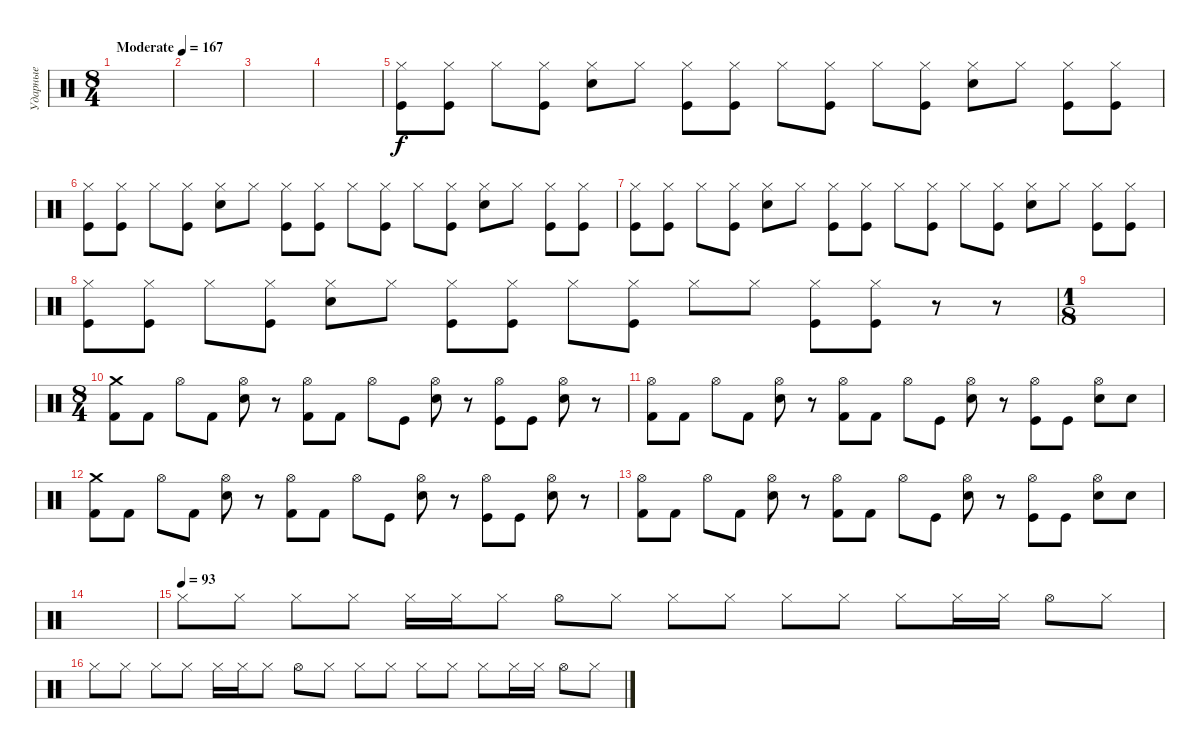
\track ("Ударные" "Ударные") {instrument percussion}
\staff {score}
\articulation defaults
\ts (8 4)
\tempo (167 "Moderate")
\tempo 180
\tempo (167 "Moderate")
\clef neutral
\ks c
|
|
|
|
("Hi-Hat (closed)" "Kick (hit)").8 ("Hi-Hat (closed)" "Kick (hit)").8 "Hi-Hat (closed)".8 ("Hi-Hat (closed)" "Kick (hit)").8 ("Hi-Hat (closed)" "Snare (hit) 2").8 "Hi-Hat (closed)".8 ("Hi-Hat (closed)" "Kick (hit)").8 ("Hi-Hat (closed)" "Kick (hit)").8 "Hi-Hat (closed)".8 ("Hi-Hat (closed)" "Kick (hit)").8 "Hi-Hat (closed)".8 ("Hi-Hat (closed)" "Kick (hit)").8 ("Hi-Hat (closed)" "Snare (hit) 2").8 "Hi-Hat (closed)".8 ("Hi-Hat (closed)" "Kick (hit)").8 ("Hi-Hat (closed)" "Kick (hit)").8 |
("Hi-Hat (closed)" "Kick (hit)").8 ("Hi-Hat (closed)" "Kick (hit)").8 "Hi-Hat (closed)".8 ("Hi-Hat (closed)" "Kick (hit)").8 ("Hi-Hat (closed)" "Snare (hit) 2").8 "Hi-Hat (closed)".8 ("Hi-Hat (closed)" "Kick (hit)").8 ("Hi-Hat (closed)" "Kick (hit)").8 "Hi-Hat (closed)".8 ("Hi-Hat (closed)" "Kick (hit)").8 "Hi-Hat (closed)".8 ("Hi-Hat (closed)" "Kick (hit)").8 ("Hi-Hat (closed)" "Snare (hit) 2").8 "Hi-Hat (closed)".8 ("Hi-Hat (closed)" "Kick (hit)").8 ("Hi-Hat (closed)" "Kick (hit)").8 |
("Hi-Hat (closed)" "Kick (hit)").8 ("Hi-Hat (closed)" "Kick (hit)").8 "Hi-Hat (closed)".8 ("Hi-Hat (closed)" "Kick (hit)").8 ("Hi-Hat (closed)" "Snare (hit) 2").8 "Hi-Hat (closed)".8 ("Hi-Hat (closed)" "Kick (hit)").8 ("Hi-Hat (closed)" "Kick (hit)").8 "Hi-Hat (closed)".8 ("Hi-Hat (closed)" "Kick (hit)").8 "Hi-Hat (closed)".8 ("Hi-Hat (closed)" "Kick (hit)").8 ("Hi-Hat (closed)" "Snare (hit) 2").8 "Hi-Hat (closed)".8 ("Hi-Hat (closed)" "Kick (hit)").8 ("Hi-Hat (closed)" "Kick (hit)").8 |
("Hi-Hat (closed)" "Kick (hit)").8 ("Hi-Hat (closed)" "Kick (hit)").8 "Hi-Hat (closed)".8 ("Hi-Hat (closed)" "Kick (hit)").8 ("Hi-Hat (closed)" "Snare (hit) 2").8 "Hi-Hat (closed)".8 ("Hi-Hat (closed)" "Kick (hit)").8 ("Hi-Hat (closed)" "Kick (hit)").8 "Hi-Hat (closed)".8 ("Hi-Hat (closed)" "Kick (hit)").8 "Hi-Hat (closed)".8 "Hi-Hat (closed)".8 ("Hi-Hat (closed)" "Kick (hit)").8 ("Hi-Hat (closed)" "Kick (hit)").8 r.8 r.8 |
\ts (1 8)
|
\ts (8 4)
("Crash medium (hit)" "Kick (hit) 2").8 "Kick (hit) 2".8 "Hi-Hat (open)".8 "Kick (hit) 2".8 ("Hi-Hat (open)" "Electric Snare (hit)").8 r.8 ("Hi-Hat (open)" "Kick (hit) 2").8 "Kick (hit) 2".8 "Hi-Hat (open)".8 "Kick (hit)".8 ("Hi-Hat (open)" "Snare (hit) 2").8 r.8 ("Hi-Hat (open)" "Kick (hit)").8 "Kick (hit)".8 ("Hi-Hat (open)" "Electric Snare (hit)").8 r.8 |
("Hi-Hat (open)" "Kick (hit) 2").8 "Kick (hit) 2".8 "Hi-Hat (open)".8 "Kick (hit) 2".8 ("Hi-Hat (open)" "Electric Snare (hit)").8 r.8 ("Hi-Hat (open)" "Kick (hit) 2").8 "Kick (hit) 2".8 "Hi-Hat (open)".8 "Kick (hit)".8 ("Hi-Hat (open)" "Electric Snare (hit)").8 r.8 ("Hi-Hat (open)" "Kick (hit)").8 "Kick (hit)".8 ("Hi-Hat (open)" "Electric Snare (hit)").8 "Electric Snare (hit)".8 |
("Crash medium (hit)" "Kick (hit) 2").8 "Kick (hit) 2".8 "Hi-Hat (open)".8 "Kick (hit) 2".8 ("Hi-Hat (open)" "Electric Snare (hit)").8 r.8 ("Hi-Hat (open)" "Kick (hit) 2").8 "Kick (hit) 2".8 "Hi-Hat (open)".8 "Kick (hit)".8 ("Hi-Hat (open)" "Snare (hit) 2").8 r.8 ("Hi-Hat (open)" "Kick (hit)").8 "Kick (hit)".8 ("Hi-Hat (open)" "Electric Snare (hit)").8 r.8 |
("Hi-Hat (open)" "Kick (hit) 2").8 "Kick (hit) 2".8 "Hi-Hat (open)".8 "Kick (hit) 2".8 ("Hi-Hat (open)" "Electric Snare (hit)").8 r.8 ("Hi-Hat (open)" "Kick (hit) 2").8 "Kick (hit) 2".8 "Hi-Hat (open)".8 "Kick (hit)".8 ("Hi-Hat (open)" "Electric Snare (hit)").8 r.8 ("Hi-Hat (open)" "Kick (hit)").8 "Kick (hit)".8 ("Hi-Hat (open)" "Electric Snare (hit)").8 "Electric Snare (hit)".8 |
|
\tempo (93)
"Hi-Hat (closed)".8 "Hi-Hat (closed)".8 "Hi-Hat (closed)".8 "Hi-Hat (closed)".8 "Hi-Hat (closed)".16 "Hi-Hat (closed)".16 "Hi-Hat (closed)".8 "Hi-Hat (open)".8 "Hi-Hat (closed)".8 "Hi-Hat (closed)".8 "Hi-Hat (closed)".8 "Hi-Hat (closed)".8 "Hi-Hat (closed)".8 "Hi-Hat (closed)".8 "Hi-Hat (closed)".16 "Hi-Hat (closed)".16 "Hi-Hat (open)".8 "Hi-Hat (closed)".8 |
"Hi-Hat (closed)".8 "Hi-Hat (closed)".8 "Hi-Hat (closed)".8 "Hi-Hat (closed)".8 "Hi-Hat (closed)".16 "Hi-Hat (closed)".16 "Hi-Hat (closed)".8 "Hi-Hat (open)".8 "Hi-Hat (closed)".8 "Hi-Hat (closed)".8 "Hi-Hat (closed)".8 "Hi-Hat (closed)".8 "Hi-Hat (closed)".8 "Hi-Hat (closed)".8 "Hi-Hat (closed)".16 "Hi-Hat (closed)".16 "Hi-Hat (open)".8 "Hi-Hat (closed)".8
